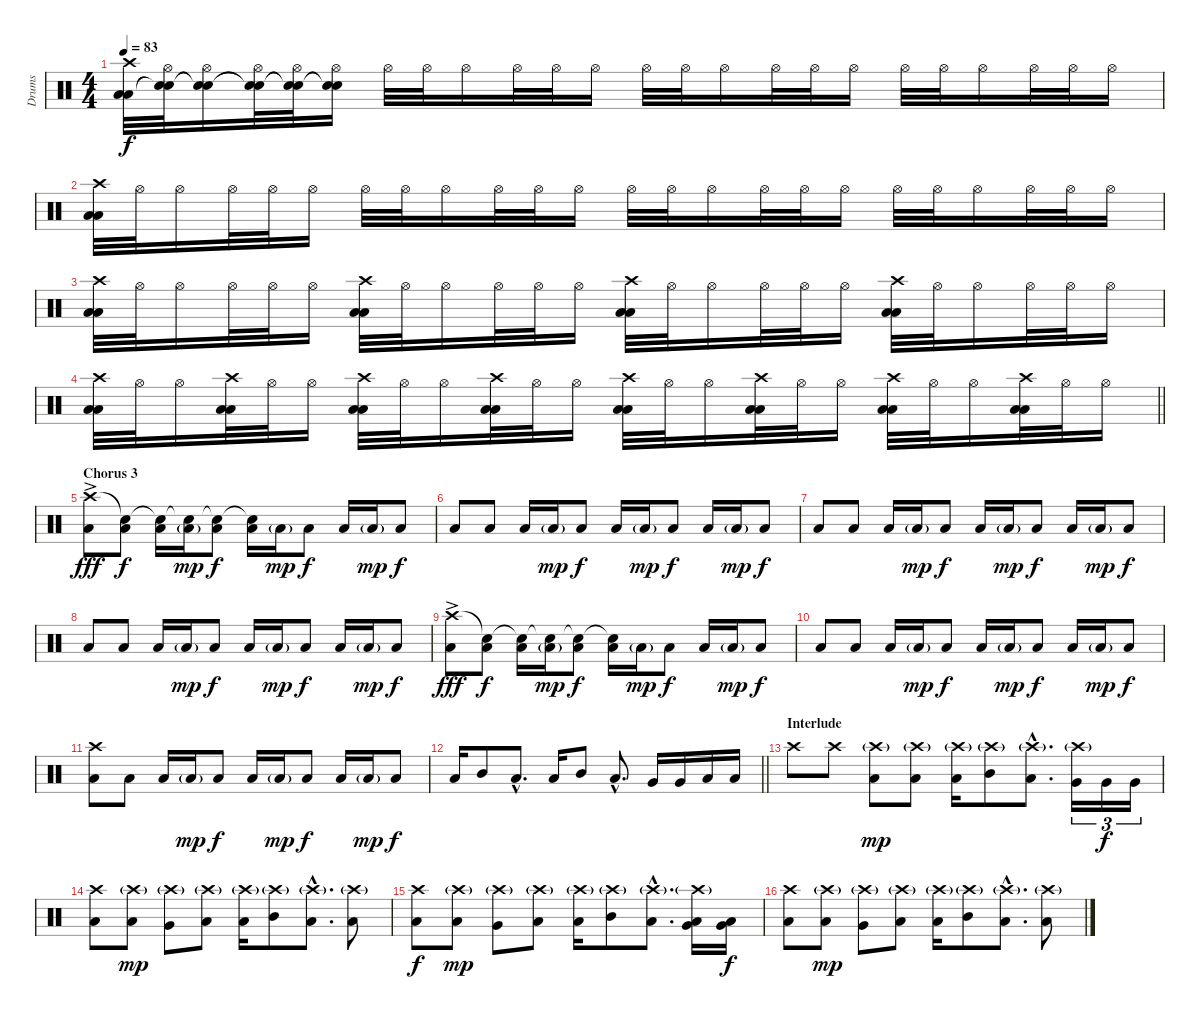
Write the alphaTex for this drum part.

\track ("Drums" "Drums") {instrument percussion}
\staff {score}
\articulation defaults
\ts (4 4)
\tempo 83
\clef neutral
\ks c
("Crash high (hit)" "Low Tom (hit)" "Low Floor Tom (hit)").32{dy f} ("Hi-Hat (open)" "Snare (hit)"{t} "Snare (hit)"{t}).32 ("Hi-Hat (open)" "Snare (hit)"{t} "Snare (hit)"{t}).16 ("Hi-Hat (open)" "Snare (hit)"{t} "Snare (hit)"{t}).32 ("Hi-Hat (open)" "Snare (hit)"{t} "Snare (hit)"{t}).32 ("Hi-Hat (open)" "Snare (hit)"{t} "Snare (hit)"{t}).16 "Hi-Hat (open)".32 "Hi-Hat (open)".32 "Hi-Hat (open)".16 "Hi-Hat (open)".32 "Hi-Hat (open)".32 "Hi-Hat (open)".16 "Hi-Hat (open)".32 "Hi-Hat (open)".32 "Hi-Hat (open)".16 "Hi-Hat (open)".32 "Hi-Hat (open)".32 "Hi-Hat (open)".16 "Hi-Hat (open)".32 "Hi-Hat (open)".32 "Hi-Hat (open)".16 "Hi-Hat (open)".32 "Hi-Hat (open)".32 "Hi-Hat (open)".16 |
("Crash high (hit)" "Low Tom (hit)" "Low Floor Tom (hit)").32 "Hi-Hat (open)".32 "Hi-Hat (open)".16 "Hi-Hat (open)".32 "Hi-Hat (open)".32 "Hi-Hat (open)".16 "Hi-Hat (open)".32 "Hi-Hat (open)".32 "Hi-Hat (open)".16 "Hi-Hat (open)".32 "Hi-Hat (open)".32 "Hi-Hat (open)".16 "Hi-Hat (open)".32 "Hi-Hat (open)".32 "Hi-Hat (open)".16 "Hi-Hat (open)".32 "Hi-Hat (open)".32 "Hi-Hat (open)".16 "Hi-Hat (open)".32 "Hi-Hat (open)".32 "Hi-Hat (open)".16 "Hi-Hat (open)".32 "Hi-Hat (open)".32 "Hi-Hat (open)".16 |
("Crash high (hit)" "Low Tom (hit)" "Low Floor Tom (hit)").32 "Hi-Hat (open)".32 "Hi-Hat (open)".16 "Hi-Hat (open)".32 "Hi-Hat (open)".32 "Hi-Hat (open)".16 ("Crash high (hit)" "Low Tom (hit)" "Low Floor Tom (hit)").32 "Hi-Hat (open)".32 "Hi-Hat (open)".16 "Hi-Hat (open)".32 "Hi-Hat (open)".32 "Hi-Hat (open)".16 ("Crash high (hit)" "Low Tom (hit)" "Low Floor Tom (hit)").32 "Hi-Hat (open)".32 "Hi-Hat (open)".16 "Hi-Hat (open)".32 "Hi-Hat (open)".32 "Hi-Hat (open)".16 ("Crash high (hit)" "Low Tom (hit)" "Low Floor Tom (hit)").32 "Hi-Hat (open)".32 "Hi-Hat (open)".16 "Hi-Hat (open)".32 "Hi-Hat (open)".32 "Hi-Hat (open)".16 |
\barLineRight lightlight
("Crash high (hit)" "Low Tom (hit)" "Low Floor Tom (hit)").32 "Hi-Hat (open)".32 "Hi-Hat (open)".16 ("Crash high (hit)" "Low Tom (hit)" "Low Floor Tom (hit)").32 "Hi-Hat (open)".32 "Hi-Hat (open)".16 ("Crash high (hit)" "Low Tom (hit)" "Low Floor Tom (hit)").32 "Hi-Hat (open)".32 "Hi-Hat (open)".16 ("Crash high (hit)" "Low Tom (hit)" "Low Floor Tom (hit)").32 "Hi-Hat (open)".32 "Hi-Hat (open)".16 ("Crash high (hit)" "Low Tom (hit)" "Low Floor Tom (hit)").32 "Hi-Hat (open)".32 "Hi-Hat (open)".16 ("Crash high (hit)" "Low Tom (hit)" "Low Floor Tom (hit)").32 "Hi-Hat (open)".32 "Hi-Hat (open)".16 ("Crash high (hit)" "Low Tom (hit)" "Low Floor Tom (hit)").32 "Hi-Hat (open)".32 "Hi-Hat (open)".16 ("Crash high (hit)" "Low Tom (hit)" "Low Floor Tom (hit)").32 "Hi-Hat (open)".32 "Hi-Hat (open)".16 |
\section ("" "Chorus 3")
("Crash high (hit)"{ac} "Low Floor Tom (hit)").8{dy fff} ("Snare (hit)"{t} "Low Tom (hit)").8{dy f} ("Snare (hit)"{t} "Low Floor Tom (hit)").16 ("Snare (hit)"{t} "Low Tom (hit)"{g}).16{dy mp} ("Snare (hit)"{t} "Low Tom (hit)").8{dy f} ("Snare (hit)"{t} "Low Floor Tom (hit)").16 "Low Tom (hit)"{g}.16{dy mp} "Low Tom (hit)".8{dy f} "Low Floor Tom (hit)".16 "Low Tom (hit)"{g}.16{dy mp} "Low Tom (hit)".8{dy f} |
"Low Floor Tom (hit)".8 "Low Tom (hit)".8 "Low Floor Tom (hit)".16 "Low Tom (hit)"{g}.16{dy mp} "Low Tom (hit)".8{dy f} "Low Floor Tom (hit)".16 "Low Tom (hit)"{g}.16{dy mp} "Low Tom (hit)".8{dy f} "Low Floor Tom (hit)".16 "Low Tom (hit)"{g}.16{dy mp} "Low Tom (hit)".8{dy f} |
"Low Floor Tom (hit)".8 "Low Tom (hit)".8 "Low Floor Tom (hit)".16 "Low Tom (hit)"{g}.16{dy mp} "Low Tom (hit)".8{dy f} "Low Floor Tom (hit)".16 "Low Tom (hit)"{g}.16{dy mp} "Low Tom (hit)".8{dy f} "Low Floor Tom (hit)".16 "Low Tom (hit)"{g}.16{dy mp} "Low Tom (hit)".8{dy f} |
"Low Floor Tom (hit)".8 "Low Tom (hit)".8 "Low Floor Tom (hit)".16 "Low Tom (hit)"{g}.16{dy mp} "Low Tom (hit)".8{dy f} "Low Floor Tom (hit)".16 "Low Tom (hit)"{g}.16{dy mp} "Low Tom (hit)".8{dy f} "Low Floor Tom (hit)".16 "Low Tom (hit)"{g}.16{dy mp} "Low Tom (hit)".8{dy f} |
("Crash high (hit)"{ac} "Low Floor Tom (hit)").8{dy fff} ("Snare (hit)"{t} "Low Tom (hit)").8{dy f} ("Snare (hit)"{t} "Low Floor Tom (hit)").16 ("Snare (hit)"{t} "Low Tom (hit)"{g}).16{dy mp} ("Snare (hit)"{t} "Low Tom (hit)").8{dy f} ("Snare (hit)"{t} "Low Floor Tom (hit)").16 "Low Tom (hit)"{g}.16{dy mp} "Low Tom (hit)".8{dy f} "Low Floor Tom (hit)".16 "Low Tom (hit)"{g}.16{dy mp} "Low Tom (hit)".8{dy f} |
"Low Floor Tom (hit)".8 "Low Tom (hit)".8 "Low Floor Tom (hit)".16 "Low Tom (hit)"{g}.16{dy mp} "Low Tom (hit)".8{dy f} "Low Floor Tom (hit)".16 "Low Tom (hit)"{g}.16{dy mp} "Low Tom (hit)".8{dy f} "Low Floor Tom (hit)".16 "Low Tom (hit)"{g}.16{dy mp} "Low Tom (hit)".8{dy f} |
("Crash high (hit)" "Low Floor Tom (hit)").8 "Low Tom (hit)".8 "Low Floor Tom (hit)".16 "Low Tom (hit)"{g}.16{dy mp} "Low Tom (hit)".8{dy f} "Low Floor Tom (hit)".16 "Low Tom (hit)"{g}.16{dy mp} "Low Tom (hit)".8{dy f} "Low Floor Tom (hit)".16 "Low Tom (hit)"{g}.16{dy mp} "Low Tom (hit)".8{dy f} |
\barLineRight lightlight "Low Tom (hit)".16 "Mid Tom (hit)".8 "Low Tom (hit)"{hac}.8{d} "Low Tom (hit)".16 "Mid Tom (hit)".8 "Low Tom (hit)"{hac}.8{d} "Very Low Tom (hit)".16 "Very Low Tom (hit)".16 "Low Floor Tom (hit)".16 "Low Floor Tom (hit)".16
|
\section ("" "Interlude")
"Crash high (hit)".8 "Crash high (hit)".8 ("Crash high (hit)"{g} "Low Tom (hit)").8{dy mp} ("Crash high (hit)"{g} "Low Tom (hit)").8 ("Crash high (hit)"{g} "Low Tom (hit)").16 ("Crash high (hit)"{g} "Mid Tom (hit)").8 ("Crash high (hit)"{g hac} "Low Tom (hit)"{hac}).8{d} ("Crash high (hit)"{g} "Very Low Tom (hit)").16{tu (3 2)} "Very Low Tom (hit)".16{tu (3 2) dy f} "Very Low Tom (hit)".16{tu (3 2)} |
("Crash high (hit)" "Low Floor Tom (hit)").8 ("Crash high (hit)"{g} "Low Tom (hit)").8{dy mp} ("Crash high (hit)"{g} "Very Low Tom (hit)").8 ("Crash high (hit)"{g} "Low Floor Tom (hit)").8 ("Crash high (hit)"{g} "Low Tom (hit)").16 ("Crash high (hit)"{g} "Mid Tom (hit)").8 ("Crash high (hit)"{g hac} "Low Tom (hit)"{hac}).8{d} ("Crash high (hit)"{g} "Low Floor Tom (hit)").8 |
("Crash high (hit)" "Low Floor Tom (hit)").8{dy f} ("Crash high (hit)"{g} "Low Tom (hit)").8{dy mp} ("Crash high (hit)"{g} "Very Low Tom (hit)").8 ("Crash high (hit)"{g} "Low Floor Tom (hit)").8 ("Crash high (hit)"{g} "Low Tom (hit)").16 ("Crash high (hit)"{g} "Mid Tom (hit)").8 ("Crash high (hit)"{g hac} "Low Tom (hit)"{hac}).8{d} ("Crash high (hit)"{g} "Very Low Tom (hit)" "Low Floor Tom (hit)").16 ("Very Low Tom (hit)" "Low Floor Tom (hit)").16{dy f} |
("Crash high (hit)" "Low Floor Tom (hit)").8 ("Crash high (hit)"{g} "Low Tom (hit)").8{dy mp} ("Crash high (hit)"{g} "Very Low Tom (hit)").8 ("Crash high (hit)"{g} "Low Floor Tom (hit)").8 ("Crash high (hit)"{g} "Low Tom (hit)").16 ("Crash high (hit)"{g} "Mid Tom (hit)").8 ("Crash high (hit)"{g hac} "Low Tom (hit)"{hac}).8{d} ("Crash high (hit)"{g} "Low Floor Tom (hit)").8
